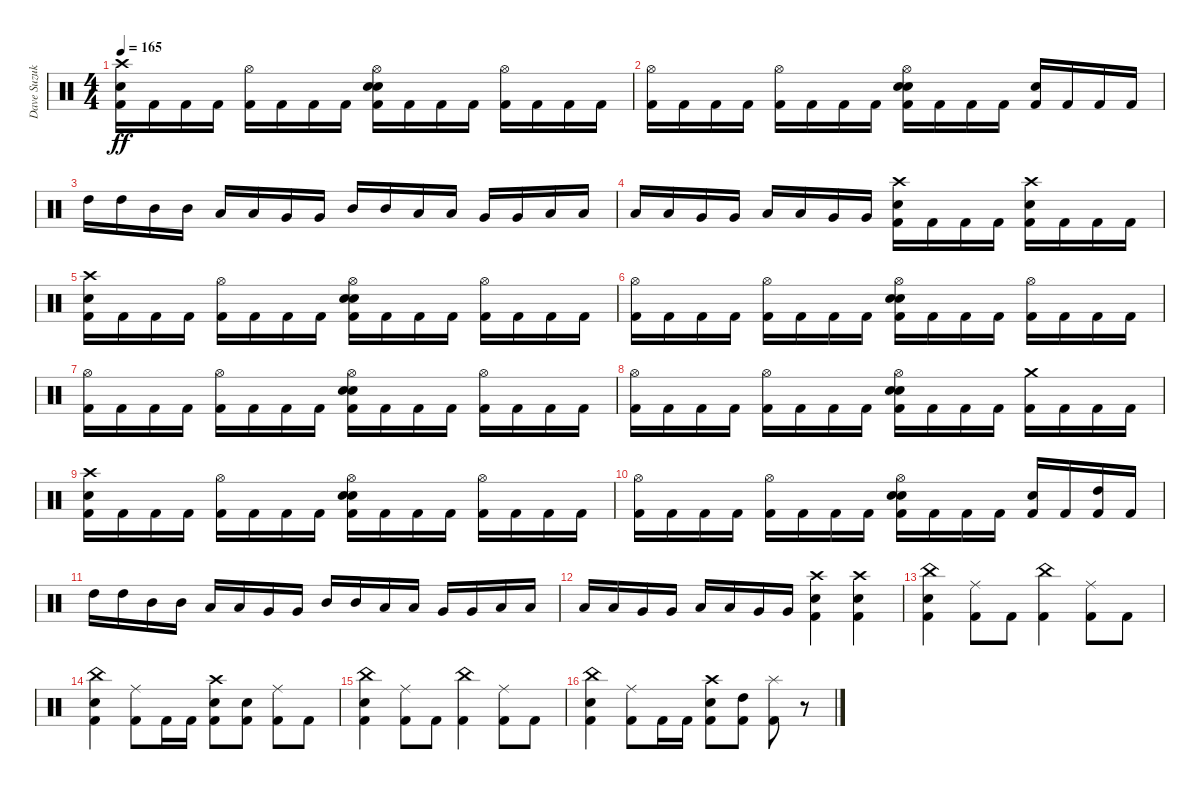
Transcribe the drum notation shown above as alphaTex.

\track ("Dave Suzuki - Drums" "Dave Suzuk") {instrument percussion}
\staff {score}
\articulation defaults
\ts (4 4)
\tempo 165
\clef neutral
\ks c
("Crash high (hit)" "Electric Snare (hit)" "Kick (hit) 2").16{dy ff} "Kick (hit) 2".16 "Kick (hit) 2".16 "Kick (hit) 2".16 ("Hi-Hat (open)" "Kick (hit) 2").16 "Kick (hit) 2".16 "Kick (hit) 2".16 "Kick (hit) 2".16 ("Hi-Hat (open)" "Electric Snare (hit)" "Electric Snare (hit)" "Kick (hit) 2").16 "Kick (hit) 2".16 "Kick (hit) 2".16 "Kick (hit) 2".16 ("Hi-Hat (open)" "Kick (hit) 2").16 "Kick (hit) 2".16 "Kick (hit) 2".16 "Kick (hit) 2".16 |
("Hi-Hat (open)" "Kick (hit) 2").16 "Kick (hit) 2".16 "Kick (hit) 2".16 "Kick (hit) 2".16 ("Hi-Hat (open)" "Kick (hit) 2").16 "Kick (hit) 2".16 "Kick (hit) 2".16 "Kick (hit) 2".16 ("Hi-Hat (open)" "Electric Snare (hit)" "Electric Snare (hit)" "Kick (hit) 2").16 "Kick (hit) 2".16 "Kick (hit) 2".16 "Kick (hit) 2".16 ("Electric Snare (hit)" "Kick (hit) 2").16 "Kick (hit) 2".16 "Kick (hit) 2".16 "Kick (hit) 2".16 |
"High Tom (hit)".16 "High Tom (hit)".16 "Mid Tom (hit)".16 "Mid Tom (hit)".16 "Low Tom (hit)".16 "Low Tom (hit)".16 "Very Low Tom (hit)".16 "Very Low Tom (hit)".16 "Mid Tom (hit)".16 "Mid Tom (hit)".16 "Low Tom (hit)".16 "Low Tom (hit)".16 "Very Low Tom (hit)".16 "Very Low Tom (hit)".16 "Low Floor Tom (hit)".16 "Low Floor Tom (hit)".16 |
"Low Tom (hit)".16 "Low Tom (hit)".16 "Very Low Tom (hit)".16 "Very Low Tom (hit)".16 "Low Floor Tom (hit)".16 "Low Floor Tom (hit)".16 "Very Low Tom (hit)".16 "Very Low Tom (hit)".16 ("Crash high (hit)" "Electric Snare (hit)" "Kick (hit) 2").16 "Kick (hit) 2".16 "Kick (hit) 2".16 "Kick (hit) 2".16 ("Crash high (hit)" "Electric Snare (hit)" "Kick (hit) 2").16 "Kick (hit) 2".16 "Kick (hit) 2".16 "Kick (hit) 2".16 |
("Crash high (hit)" "Electric Snare (hit)" "Kick (hit) 2").16 "Kick (hit) 2".16 "Kick (hit) 2".16 "Kick (hit) 2".16 ("Hi-Hat (open)" "Kick (hit) 2").16 "Kick (hit) 2".16 "Kick (hit) 2".16 "Kick (hit) 2".16 ("Hi-Hat (open)" "Electric Snare (hit)" "Electric Snare (hit)" "Kick (hit) 2").16 "Kick (hit) 2".16 "Kick (hit) 2".16 "Kick (hit) 2".16 ("Hi-Hat (open)" "Kick (hit) 2").16 "Kick (hit) 2".16 "Kick (hit) 2".16 "Kick (hit) 2".16 |
("Hi-Hat (open)" "Kick (hit) 2").16 "Kick (hit) 2".16 "Kick (hit) 2".16 "Kick (hit) 2".16 ("Hi-Hat (open)" "Kick (hit) 2").16 "Kick (hit) 2".16 "Kick (hit) 2".16 "Kick (hit) 2".16 ("Hi-Hat (open)" "Electric Snare (hit)" "Electric Snare (hit)" "Kick (hit) 2").16 "Kick (hit) 2".16 "Kick (hit) 2".16 "Kick (hit) 2".16 ("Hi-Hat (open)" "Kick (hit) 2").16 "Kick (hit) 2".16 "Kick (hit) 2".16 "Kick (hit) 2".16 |
("Hi-Hat (open)" "Kick (hit) 2").16 "Kick (hit) 2".16 "Kick (hit) 2".16 "Kick (hit) 2".16 ("Hi-Hat (open)" "Kick (hit) 2").16 "Kick (hit) 2".16 "Kick (hit) 2".16 "Kick (hit) 2".16 ("Hi-Hat (open)" "Electric Snare (hit)" "Electric Snare (hit)" "Kick (hit) 2").16 "Kick (hit) 2".16 "Kick (hit) 2".16 "Kick (hit) 2".16 ("Hi-Hat (open)" "Kick (hit) 2").16 "Kick (hit) 2".16 "Kick (hit) 2".16 "Kick (hit) 2".16 |
("Hi-Hat (open)" "Kick (hit) 2").16 "Kick (hit) 2".16 "Kick (hit) 2".16 "Kick (hit) 2".16 ("Hi-Hat (open)" "Kick (hit) 2").16 "Kick (hit) 2".16 "Kick (hit) 2".16 "Kick (hit) 2".16 ("Hi-Hat (open)" "Electric Snare (hit)" "Electric Snare (hit)" "Kick (hit) 2").16 "Kick (hit) 2".16 "Kick (hit) 2".16 "Kick (hit) 2".16 ("Crash medium (hit)" "Kick (hit) 2").16 "Kick (hit) 2".16 "Kick (hit) 2".16 "Kick (hit) 2".16 |
("Crash high (hit)" "Electric Snare (hit)" "Kick (hit) 2").16 "Kick (hit) 2".16 "Kick (hit) 2".16 "Kick (hit) 2".16 ("Hi-Hat (open)" "Kick (hit) 2").16 "Kick (hit) 2".16 "Kick (hit) 2".16 "Kick (hit) 2".16 ("Hi-Hat (open)" "Electric Snare (hit)" "Electric Snare (hit)" "Kick (hit) 2").16 "Kick (hit) 2".16 "Kick (hit) 2".16 "Kick (hit) 2".16 ("Hi-Hat (open)" "Kick (hit) 2").16 "Kick (hit) 2".16 "Kick (hit) 2".16 "Kick (hit) 2".16 |
("Hi-Hat (open)" "Kick (hit) 2").16 "Kick (hit) 2".16 "Kick (hit) 2".16 "Kick (hit) 2".16 ("Hi-Hat (open)" "Kick (hit) 2").16 "Kick (hit) 2".16 "Kick (hit) 2".16 "Kick (hit) 2".16 ("Hi-Hat (open)" "Electric Snare (hit)" "Electric Snare (hit)" "Kick (hit) 2").16 "Kick (hit) 2".16 "Kick (hit) 2".16 "Kick (hit) 2".16 ("Electric Snare (hit)" "Kick (hit) 2").16 "Kick (hit) 2".16 ("High Tom (hit)" "Kick (hit) 2").16 "Kick (hit) 2".16 |
"High Tom (hit)".16 "High Tom (hit)".16 "Mid Tom (hit)".16 "Mid Tom (hit)".16 "Low Tom (hit)".16 "Low Tom (hit)".16 "Very Low Tom (hit)".16 "Very Low Tom (hit)".16 "Mid Tom (hit)".16 "Mid Tom (hit)".16 "Low Tom (hit)".16 "Low Tom (hit)".16 "Very Low Tom (hit)".16 "Very Low Tom (hit)".16 "Low Floor Tom (hit)".16 "Low Floor Tom (hit)".16 |
"Low Tom (hit)".16 "Low Tom (hit)".16 "Very Low Tom (hit)".16 "Very Low Tom (hit)".16 "Low Floor Tom (hit)".16 "Low Floor Tom (hit)".16 "Very Low Tom (hit)".16 "Very Low Tom (hit)".16 ("Crash high (hit)" "Electric Snare (hit)" "Kick (hit) 2").4 ("Crash high (hit)" "Electric Snare (hit)" "Kick (hit) 2").4 |
("China (hit)" "Electric Snare (hit)" "Kick (hit) 2").4 ("Ride (middle)" "Kick (hit) 2").8 "Kick (hit) 2".8 ("China (hit)" "Kick (hit) 2").4 ("Ride (middle)" "Kick (hit) 2").8 "Kick (hit) 2".8 |
("China (hit)" "Electric Snare (hit)" "Kick (hit) 2").4 ("Ride (middle)" "Kick (hit) 2").8 "Kick (hit) 2".16 "Kick (hit) 2".16 ("Crash high (hit)" "Electric Snare (hit)" "Kick (hit) 2").8 ("Electric Snare (hit)" "Kick (hit) 2").8 ("Ride (middle)" "Kick (hit) 2").8 "Kick (hit) 2".8 |
("China (hit)" "Electric Snare (hit)" "Kick (hit) 2").4 ("Ride (middle)" "Kick (hit) 2").8 "Kick (hit) 2".8 ("China (hit)" "Kick (hit) 2").4 ("Ride (middle)" "Kick (hit) 2").8 "Kick (hit) 2".8 |
("China (hit)" "Electric Snare (hit)" "Kick (hit) 2").4 ("Ride (middle)" "Kick (hit) 2").8 "Kick (hit) 2".16 "Kick (hit) 2".16 ("Crash high (hit)" "Electric Snare (hit)" "Kick (hit) 2").8 ("High Tom (hit)" "Kick (hit) 2").8 ("Splash (hit)" "Kick (hit) 2").8 r.8
